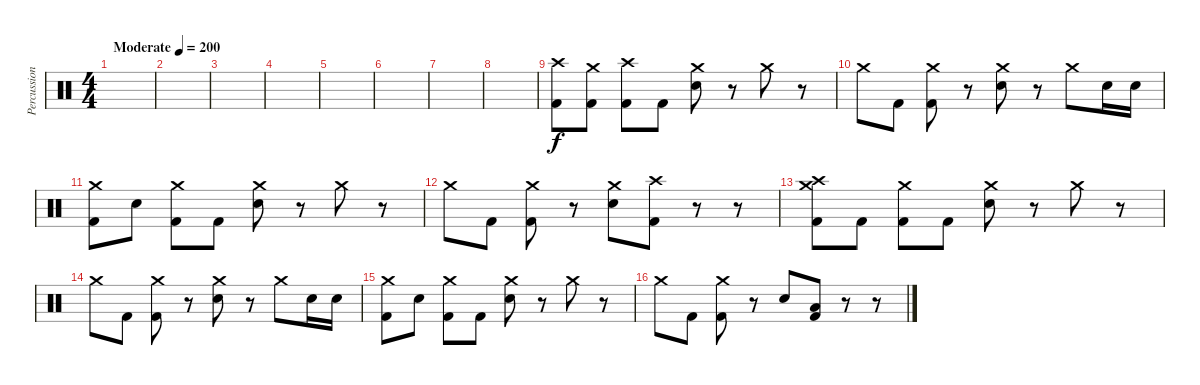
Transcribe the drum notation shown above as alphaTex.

\track ("Percussion" "Percussion") {instrument percussion}
\staff {score}
\articulation defaults
\ts (4 4)
\tempo (200 "Moderate")
\clef neutral
\ks c
|
|
|
|
|
|
|
|
("Crash high (hit)" "Kick (hit) 2").8 ("Crash medium (hit)" "Kick (hit) 2").8 ("Crash high (hit)" "Kick (hit) 2").8 "Kick (hit) 2".8 ("Crash medium (hit)" "Snare (hit) 2").8 r.8 "Crash medium (hit)".8 r.8 |
"Crash medium (hit)".8 "Kick (hit) 2".8 ("Crash medium (hit)" "Kick (hit) 2").8 r.8 ("Crash medium (hit)" "Snare (hit) 2").8 r.8 "Crash medium (hit)".8 "Snare (hit) 2".16 "Snare (hit) 2".16 |
("Crash medium (hit)" "Kick (hit) 2").8 "Snare (hit) 2".8 ("Crash medium (hit)" "Kick (hit) 2").8 "Kick (hit) 2".8 ("Crash medium (hit)" "Snare (hit) 2").8 r.8 "Crash medium (hit)".8 r.8 |
"Crash medium (hit)".8 "Kick (hit) 2".8 ("Crash medium (hit)" "Kick (hit) 2").8 r.8 ("Crash medium (hit)" "Snare (hit) 2").8 ("Crash high (hit)" "Kick (hit) 2").8 r.8 r.8 |
("Crash high (hit)" "Crash medium (hit)" "Kick (hit) 2").8 "Kick (hit) 2".8 ("Crash medium (hit)" "Kick (hit) 2").8 "Kick (hit) 2".8 ("Crash medium (hit)" "Snare (hit) 2").8 r.8 "Crash medium (hit)".8 r.8 |
"Crash medium (hit)".8 "Kick (hit) 2".8 ("Crash medium (hit)" "Kick (hit) 2").8 r.8 ("Crash medium (hit)" "Snare (hit) 2").8 r.8 "Crash medium (hit)".8 "Snare (hit) 2".16 "Snare (hit) 2".16 |
("Crash medium (hit)" "Kick (hit) 2").8 "Snare (hit) 2".8 ("Crash medium (hit)" "Kick (hit) 2").8 "Kick (hit) 2".8 ("Crash medium (hit)" "Snare (hit) 2").8 r.8 "Crash medium (hit)".8 r.8 |
"Crash medium (hit)".8 "Kick (hit) 2".8 ("Crash medium (hit)" "Kick (hit) 2").8 r.8 "Snare (hit) 2".8 ("Low Floor Tom (hit)" "Kick (hit) 2").8 r.8 r.8
